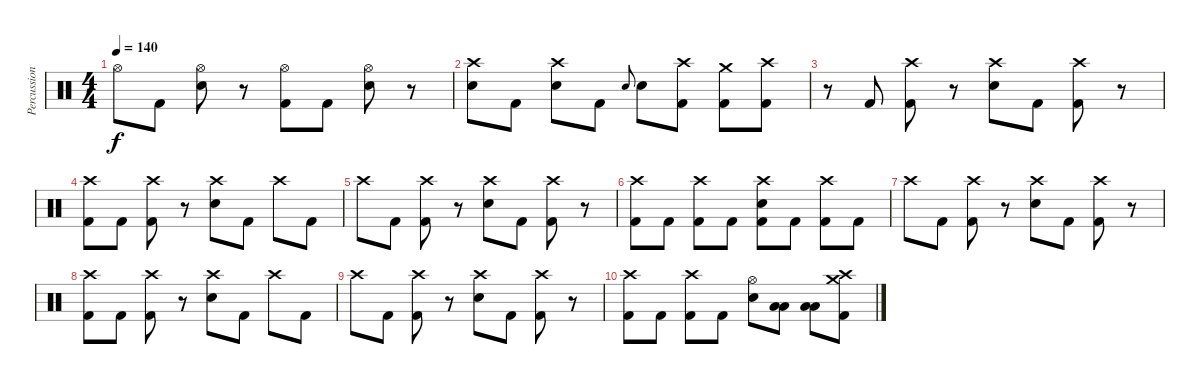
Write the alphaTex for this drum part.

\track ("Percussion" "Percussion") {instrument percussion}
\staff {score}
\articulation defaults
\ts (4 4)
\tempo 140
\clef neutral
\ks c "Hi-Hat (open)".8{dy f} "Kick (hit) 2".8
("Hi-Hat (open)" "Electric Snare (hit)").8 r.8 ("Hi-Hat (open)" "Kick (hit) 2").8 "Kick (hit) 2".8 ("Hi-Hat (open)" "Electric Snare (hit)").8 r.8 |
("Crash high (hit)" "Electric Snare (hit)").8 "Kick (hit) 2".8 ("Crash high (hit)" "Electric Snare (hit)").8 "Kick (hit) 2".8 "Electric Snare (hit)".8{gr onbeat} "Electric Snare (hit)".8 ("Crash high (hit)" "Kick (hit) 2").8 ("Crash medium (hit)" "Kick (hit) 2").8 ("Crash high (hit)" "Kick (hit) 2").8 |
r.8 "Kick (hit) 2".8 ("Crash high (hit)" "Kick (hit) 2").8 r.8 ("Crash high (hit)" "Electric Snare (hit)").8 "Kick (hit) 2".8 ("Crash high (hit)" "Kick (hit) 2").8 r.8 |
("Crash high (hit)" "Kick (hit) 2").8 "Kick (hit) 2".8 ("Crash high (hit)" "Kick (hit) 2").8 r.8 ("Crash high (hit)" "Electric Snare (hit)").8 "Kick (hit) 2".8 "Crash high (hit)".8 "Kick (hit) 2".8 |
"Crash high (hit)".8 "Kick (hit) 2".8 ("Crash high (hit)" "Kick (hit) 2").8 r.8 ("Crash high (hit)" "Electric Snare (hit)").8 "Kick (hit) 2".8 ("Crash high (hit)" "Kick (hit) 2").8 r.8 |
("Crash high (hit)" "Kick (hit) 2").8 "Kick (hit) 2".8 ("Crash high (hit)" "Kick (hit) 2").8 "Kick (hit) 2".8 ("Crash high (hit)" "Electric Snare (hit)" "Kick (hit) 2").8 "Kick (hit) 2".8 ("Crash high (hit)" "Kick (hit) 2").8 "Kick (hit) 2".8 |
"Crash high (hit)".8 "Kick (hit) 2".8 ("Crash high (hit)" "Kick (hit) 2").8 r.8 ("Crash high (hit)" "Electric Snare (hit)").8 "Kick (hit) 2".8 ("Crash high (hit)" "Kick (hit) 2").8 r.8 |
("Crash high (hit)" "Kick (hit) 2").8 "Kick (hit) 2".8 ("Crash high (hit)" "Kick (hit) 2").8 r.8 ("Crash high (hit)" "Electric Snare (hit)").8 "Kick (hit) 2".8 "Crash high (hit)".8 "Kick (hit) 2".8 |
"Crash high (hit)".8 "Kick (hit) 2".8 ("Crash high (hit)" "Kick (hit) 2").8 r.8 ("Crash high (hit)" "Electric Snare (hit)").8 "Kick (hit) 2".8 ("Crash high (hit)" "Kick (hit) 2").8 r.8 |
("Crash high (hit)" "Kick (hit) 2").8 "Kick (hit) 2".8 ("Crash high (hit)" "Kick (hit) 2").8 "Kick (hit) 2".8 ("Hi-Hat (open)" "Electric Snare (hit)").8 ("Low Tom (hit)" "Low Floor Tom (hit)").8 ("Low Tom (hit)" "Low Floor Tom (hit)").8 ("Crash medium (hit)" "Crash high (hit)" "Kick (hit) 2").8
